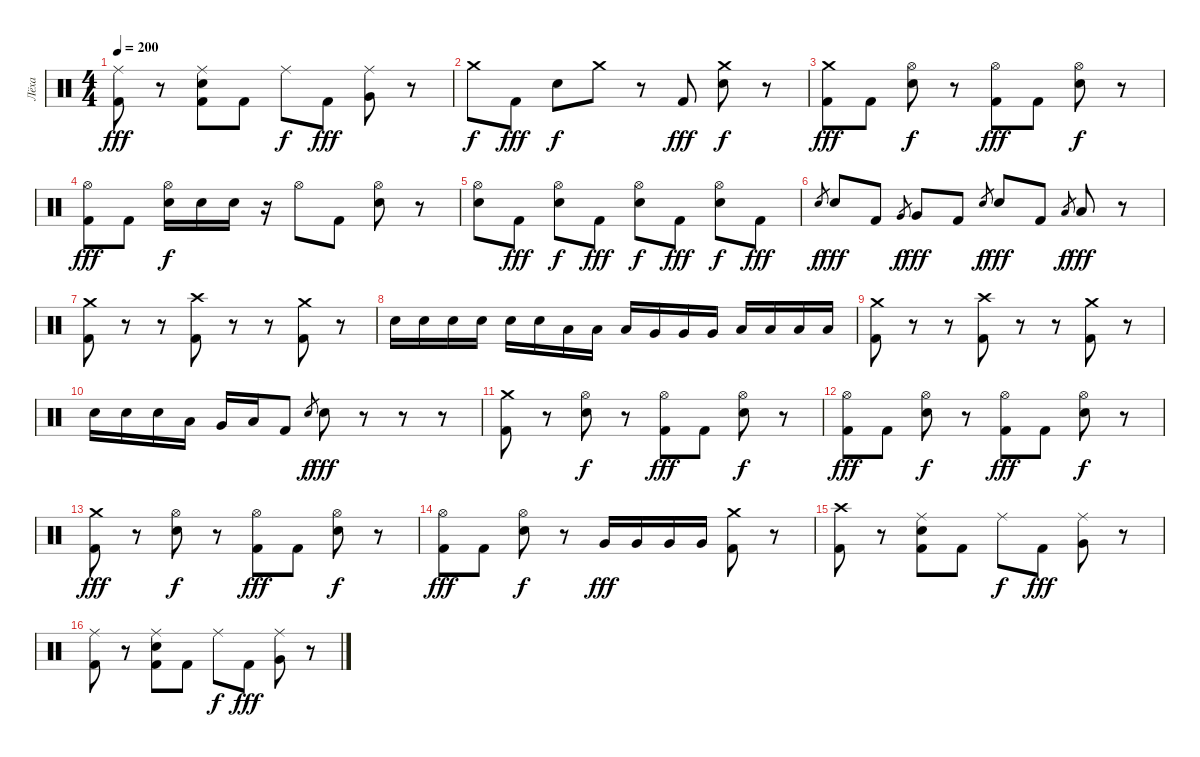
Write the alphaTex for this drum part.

\track ("Лёха" "Лёха") {instrument percussion}
\staff {score}
\articulation defaults
\ts (4 4)
\tempo 200
\clef neutral
\ks c
("Ride (middle)" "Kick (hit) 2").8{dy fff} r.8 ("Ride (middle)" "Electric Snare (hit)" "Kick (hit) 2").8 "Kick (hit) 2".8 "Ride (middle)".8{dy f} "Kick (hit) 2".8{dy fff} ("Ride (middle)" "Very Low Tom (hit)").8 r.8 |
"Crash medium (hit)".8{dy f} "Kick (hit) 2".8{dy fff} "Electric Snare (hit)".8{dy f} "Crash medium (hit)".8 r.8 "Kick (hit) 2".8{dy fff} ("Crash medium (hit)" "Electric Snare (hit)").8{dy f} r.8 |
("Crash medium (hit)" "Kick (hit) 2").8{dy fff} "Kick (hit) 2".8 ("Hi-Hat (open)" "Electric Snare (hit)").8{dy f} r.8 ("Hi-Hat (open)" "Kick (hit) 2").8{dy fff} "Kick (hit) 2".8 ("Hi-Hat (open)" "Electric Snare (hit)").8{dy f} r.8 |
("Hi-Hat (open)" "Kick (hit) 2").8{dy fff} "Kick (hit) 2".8 ("Hi-Hat (open)" "Electric Snare (hit)").16{dy f} "Electric Snare (hit)".16 "Electric Snare (hit)".16 r.16 "Hi-Hat (open)".8 "Kick (hit) 2".8 ("Hi-Hat (open)" "Electric Snare (hit)").8 r.8 |
("Hi-Hat (open)" "Electric Snare (hit)").8 "Kick (hit) 2".8{dy fff} ("Hi-Hat (open)" "Electric Snare (hit)").8{dy f} "Kick (hit) 2".8{dy fff} ("Hi-Hat (open)" "Electric Snare (hit)").8{dy f} "Kick (hit) 2".8{dy fff} ("Hi-Hat (open)" "Electric Snare (hit)").8{dy f} "Kick (hit) 2".8{dy fff} |
"Electric Snare (hit)".8{gr dy f} "Electric Snare (hit)".8{dy fff} "Kick (hit) 2".8 "Very Low Tom (hit)".8{gr dy f} "Very Low Tom (hit)".8{dy fff} "Kick (hit) 2".8 "Electric Snare (hit)".8{gr dy f} "Electric Snare (hit)".8{dy fff} "Kick (hit) 2".8 "Low Floor Tom (hit)".8{gr dy f} "Low Floor Tom (hit)".8{dy fff} r.8 |
("Crash medium (hit)" "Kick (hit) 2").8 r.8 r.8 ("Crash high (hit)" "Kick (hit) 2").8 r.8 r.8 ("Crash medium (hit)" "Kick (hit) 2").8 r.8 |
"Electric Snare (hit)".16 "Electric Snare (hit)".16 "Electric Snare (hit)".16 "Electric Snare (hit)".16 "Electric Snare (hit)".16 "Electric Snare (hit)".16 "Low Tom (hit)".16 "Low Tom (hit)".16 "Low Tom (hit)".16 "Very Low Tom (hit)".16 "Very Low Tom (hit)".16 "Very Low Tom (hit)".16 "Low Floor Tom (hit)".16 "Low Floor Tom (hit)".16 "Low Floor Tom (hit)".16 "Low Floor Tom (hit)".16 |
("Crash medium (hit)" "Kick (hit) 2").8 r.8 r.8 ("Crash high (hit)" "Kick (hit) 2").8 r.8 r.8 ("Crash medium (hit)" "Kick (hit) 2").8 r.8 |
"Electric Snare (hit)".16 "Electric Snare (hit)".16 "Electric Snare (hit)".16 "Low Tom (hit)".16 "Very Low Tom (hit)".16 "Low Floor Tom (hit)".16 "Kick (hit) 2".8 "Electric Snare (hit)".8{gr dy f} "Electric Snare (hit)".8{dy fff} r.8 r.8 r.8 |
("Crash medium (hit)" "Kick (hit) 2").8 r.8 ("Hi-Hat (open)" "Electric Snare (hit)").8{dy f} r.8 ("Hi-Hat (open)" "Kick (hit) 2").8{dy fff} "Kick (hit) 2".8 ("Hi-Hat (open)" "Electric Snare (hit)").8{dy f} r.8 |
("Hi-Hat (open)" "Kick (hit) 2").8{dy fff} "Kick (hit) 2".8 ("Hi-Hat (open)" "Electric Snare (hit)").8{dy f} r.8 ("Hi-Hat (open)" "Kick (hit) 2").8{dy fff} "Kick (hit) 2".8 ("Hi-Hat (open)" "Electric Snare (hit)").8{dy f} r.8 |
("Crash medium (hit)" "Kick (hit) 2").8{dy fff} r.8 ("Hi-Hat (open)" "Electric Snare (hit)").8{dy f} r.8 ("Hi-Hat (open)" "Kick (hit) 2").8{dy fff} "Kick (hit) 2".8 ("Hi-Hat (open)" "Electric Snare (hit)").8{dy f} r.8 |
("Hi-Hat (open)" "Kick (hit) 2").8{dy fff} "Kick (hit) 2".8 ("Hi-Hat (open)" "Electric Snare (hit)").8{dy f} r.8 "Very Low Tom (hit)".16{dy fff} "Very Low Tom (hit)".16 "Very Low Tom (hit)".16 "Very Low Tom (hit)".16 ("Crash medium (hit)" "Kick (hit) 2").8 r.8 |
("Crash high (hit)" "Kick (hit) 2").8 r.8 ("Ride (middle)" "Electric Snare (hit)" "Kick (hit) 2").8 "Kick (hit) 2".8 "Ride (middle)".8{dy f} "Kick (hit) 2".8{dy fff} ("Ride (middle)" "Very Low Tom (hit)").8 r.8 |
("Ride (middle)" "Kick (hit) 2").8 r.8 ("Ride (middle)" "Electric Snare (hit)" "Kick (hit) 2").8 "Kick (hit) 2".8 "Ride (middle)".8{dy f} "Kick (hit) 2".8{dy fff} ("Ride (middle)" "Very Low Tom (hit)").8 r.8
